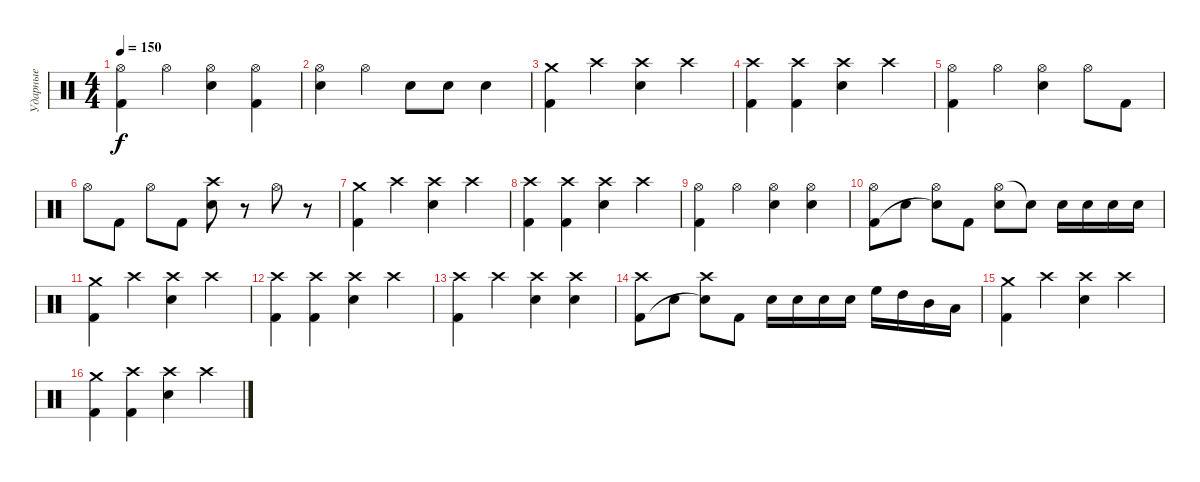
\track ("Ударные" "Ударные") {instrument percussion}
\staff {score}
\articulation defaults
\ts (4 4)
\tempo 150
\clef neutral
\ks c
("Hi-Hat (open)" "Kick (hit) 2").4{dy f} "Hi-Hat (open)".4 ("Hi-Hat (open)" "Electric Snare (hit)").4 ("Hi-Hat (open)" "Kick (hit) 2").4 |
("Hi-Hat (open)" "Electric Snare (hit)").4 "Hi-Hat (open)".4 "Electric Snare (hit)".8 "Electric Snare (hit)".8 "Electric Snare (hit)".4 |
("Crash medium (hit)" "Kick (hit) 2").4 "Crash high (hit)".4 ("Crash high (hit)" "Electric Snare (hit)").4 "Crash high (hit)".4 |
("Crash high (hit)" "Kick (hit) 2").4 ("Crash high (hit)" "Kick (hit) 2").4 ("Crash high (hit)" "Electric Snare (hit)").4 "Crash high (hit)".4 |
("Hi-Hat (open)" "Kick (hit) 2").4 "Hi-Hat (open)".4 ("Hi-Hat (open)" "Electric Snare (hit)").4 "Hi-Hat (open)".8 "Kick (hit) 2".8 |
"Hi-Hat (open)".8 "Kick (hit) 2".8 "Hi-Hat (open)".8 "Kick (hit) 2".8 ("Crash high (hit)" "Electric Snare (hit)").8 r.8 "Hi-Hat (open)".8 r.8 |
("Crash medium (hit)" "Kick (hit) 2").4 "Crash high (hit)".4 ("Crash high (hit)" "Electric Snare (hit)").4 "Crash high (hit)".4 |
("Crash high (hit)" "Kick (hit) 2").4 ("Crash high (hit)" "Kick (hit) 2").4 ("Crash high (hit)" "Electric Snare (hit)").4 "Crash high (hit)".4 |
("Hi-Hat (open)" "Kick (hit) 2").4 "Hi-Hat (open)".4 ("Hi-Hat (open)" "Electric Snare (hit)").4 ("Hi-Hat (open)" "Electric Snare (hit)").4 |
("Hi-Hat (open)" "Kick (hit) 2").8 "Electric Snare (hit)".8 ("Hi-Hat (open)" "Electric Snare (hit)"{t}).8 "Kick (hit) 2".8 ("Hi-Hat (open)" "Electric Snare (hit)").8 "Electric Snare (hit)"{t}.8 "Electric Snare (hit)".16 "Electric Snare (hit)".16 "Electric Snare (hit)".16 "Electric Snare (hit)".16 |
("Crash medium (hit)" "Kick (hit) 2").4 "Crash high (hit)".4 ("Crash high (hit)" "Electric Snare (hit)").4 "Crash high (hit)".4 |
("Crash high (hit)" "Kick (hit) 2").4 ("Crash high (hit)" "Kick (hit) 2").4 ("Crash high (hit)" "Electric Snare (hit)").4 "Crash high (hit)".4 |
("Crash high (hit)" "Kick (hit) 2").4 "Crash high (hit)".4 ("Crash high (hit)" "Electric Snare (hit)").4 ("Crash high (hit)" "Electric Snare (hit)").4 |
("Crash high (hit)" "Kick (hit) 2").8 "Electric Snare (hit)".8 ("Crash high (hit)" "Snare (hit)"{t}).8 "Kick (hit) 2".8 "Electric Snare (hit)".16 "Electric Snare (hit)".16 "Electric Snare (hit)".16 "Electric Snare (hit)".16 "High Floor Tom (hit)".16 "High Tom (hit)".16 "Mid Tom (hit)".16 "Low Tom (hit)".16 |
("Crash medium (hit)" "Kick (hit) 2").4 "Crash high (hit)".4 ("Crash high (hit)" "Electric Snare (hit)").4 "Crash high (hit)".4 |
("Crash medium (hit)" "Kick (hit) 2").4 ("Crash high (hit)" "Kick (hit) 2").4 ("Crash high (hit)" "Electric Snare (hit)").4 "Crash high (hit)".4
